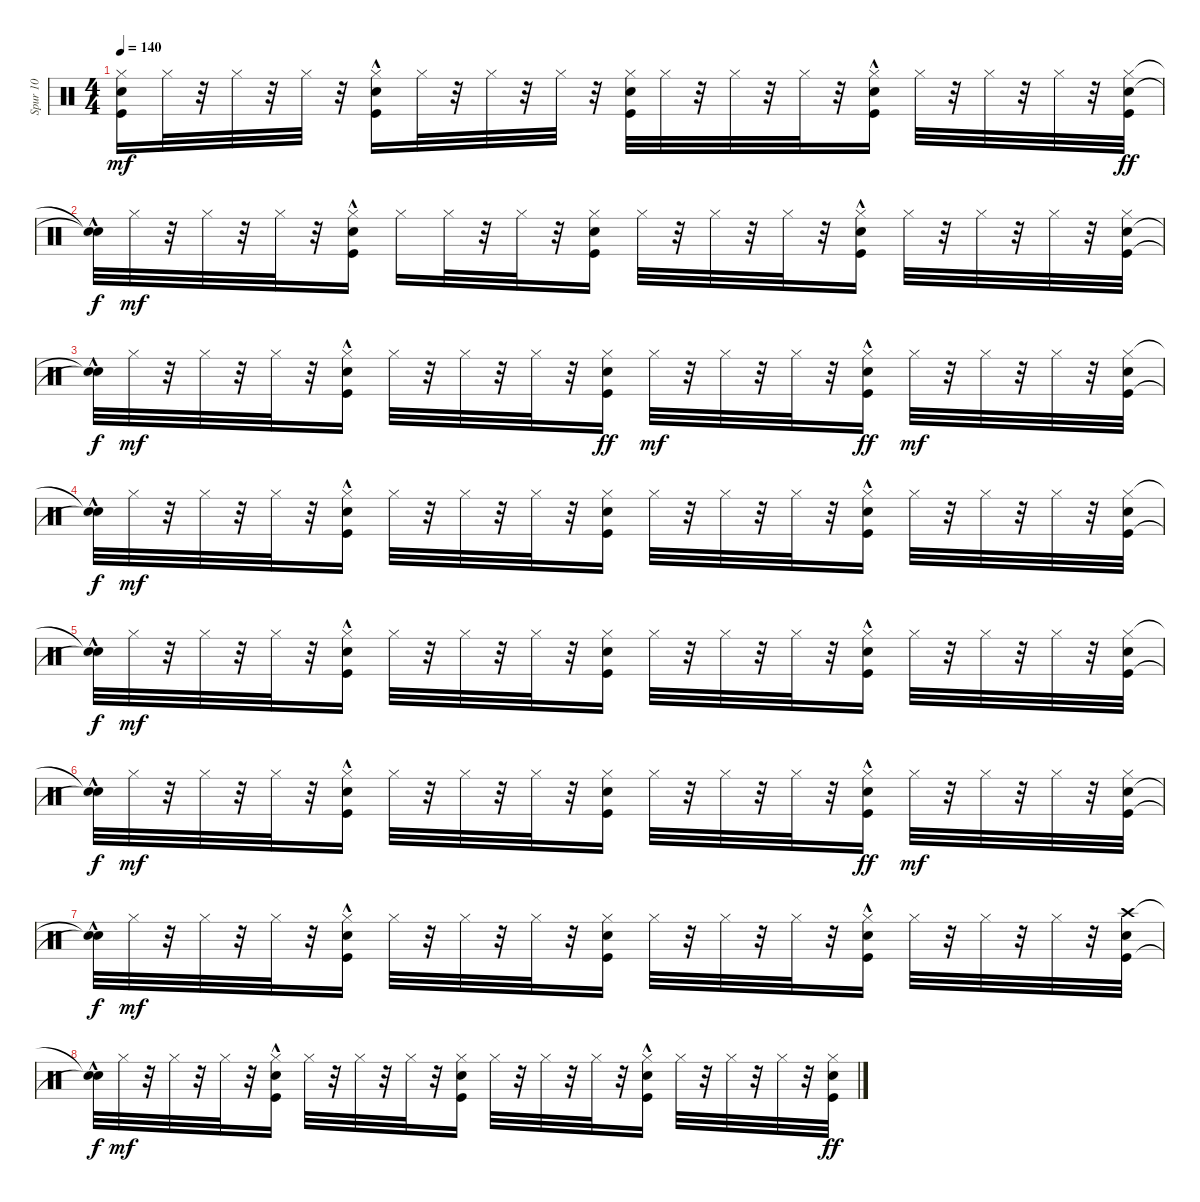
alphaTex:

\track ("Spur 10" "Spur 10") {instrument percussion}
\staff {score}
\articulation defaults
\ts (4 4)
\tempo 140
\clef neutral
\ks c
("Kick (hit)" "Hi-Hat (closed)" "Hand Clap (hit)").16{dy mf} "Hi-Hat (closed)".32 r.32 "Hi-Hat (closed)".32 r.32 "Hi-Hat (closed)".32 r.32 ("Kick (hit)"{hac} "Hi-Hat (closed)" "Hand Clap (hit)").16 "Hi-Hat (closed)".32 r.32 "Hi-Hat (closed)".32 r.32 "Hi-Hat (closed)".32 r.32 ("Hand Clap (hit)" "Kick (hit)" "Hi-Hat (closed)").32 "Hi-Hat (closed)".32 r.32 "Hi-Hat (closed)".32 r.32 "Hi-Hat (closed)".32 r.32 ("Kick (hit)"{hac} "Hi-Hat (closed)" "Hand Clap (hit)").16 "Hi-Hat (closed)".32 r.32 "Hi-Hat (closed)".32 r.32 "Hi-Hat (closed)".32 r.32 ("Hi-Hat (closed)" "Hand Clap (hit)" "Kick (hit)").32{dy ff} |
("Snare (hit)"{t} "Snare (hit)"{hac t}).32{dy f} "Hi-Hat (closed)".32{dy mf} r.32 "Hi-Hat (closed)".32 r.32 "Hi-Hat (closed)".32 r.32 ("Kick (hit)"{hac} "Hi-Hat (closed)" "Hand Clap (hit)").16 "Hi-Hat (closed)".16 "Hi-Hat (closed)".32 r.32 "Hi-Hat (closed)".32 r.32 ("Kick (hit)" "Hi-Hat (closed)" "Hand Clap (hit)").16 "Hi-Hat (closed)".32 r.32 "Hi-Hat (closed)".32 r.32 "Hi-Hat (closed)".32 r.32 ("Kick (hit)"{hac} "Hi-Hat (closed)" "Hand Clap (hit)").16 "Hi-Hat (closed)".32 r.32 "Hi-Hat (closed)".32 r.32 "Hi-Hat (closed)".32 r.32 ("Hand Clap (hit)" "Kick (hit)" "Hi-Hat (closed)").32 |
("Snare (hit)"{t} "Snare (hit)"{hac t}).32{dy f} "Hi-Hat (closed)".32{dy mf} r.32 "Hi-Hat (closed)".32 r.32 "Hi-Hat (closed)".32 r.32 ("Hand Clap (hit)" "Kick (hit)"{hac} "Hi-Hat (closed)").16 "Hi-Hat (closed)".32 r.32 "Hi-Hat (closed)".32 r.32 "Hi-Hat (closed)".32 r.32 ("Hi-Hat (closed)" "Hand Clap (hit)" "Kick (hit)").16{dy ff} "Hi-Hat (closed)".32{dy mf} r.32 "Hi-Hat (closed)".32 r.32 "Hi-Hat (closed)".32 r.32 ("Hi-Hat (closed)" "Hand Clap (hit)" "Kick (hit)"{hac}).16{dy ff} "Hi-Hat (closed)".32{dy mf} r.32 "Hi-Hat (closed)".32 r.32 "Hi-Hat (closed)".32 r.32 ("Kick (hit)" "Hi-Hat (closed)" "Hand Clap (hit)").32 |
("Snare (hit)"{hac t} "Snare (hit)"{t}).32{dy f} "Hi-Hat (closed)".32{dy mf} r.32 "Hi-Hat (closed)".32 r.32 "Hi-Hat (closed)".32 r.32 ("Kick (hit)"{hac} "Hi-Hat (closed)" "Hand Clap (hit)").16 "Hi-Hat (closed)".32 r.32 "Hi-Hat (closed)".32 r.32 "Hi-Hat (closed)".32 r.32 ("Kick (hit)" "Hi-Hat (closed)" "Hand Clap (hit)").16 "Hi-Hat (closed)".32 r.32 "Hi-Hat (closed)".32 r.32 "Hi-Hat (closed)".32 r.32 ("Hand Clap (hit)" "Kick (hit)"{hac} "Hi-Hat (closed)").16 "Hi-Hat (closed)".32 r.32 "Hi-Hat (closed)".32 r.32 "Hi-Hat (closed)".32 r.32 ("Kick (hit)" "Hi-Hat (closed)" "Hand Clap (hit)").32 |
("Snare (hit)"{hac t} "Snare (hit)"{t}).32{dy f} "Hi-Hat (closed)".32{dy mf} r.32 "Hi-Hat (closed)".32 r.32 "Hi-Hat (closed)".32 r.32 ("Kick (hit)"{hac} "Hi-Hat (closed)" "Hand Clap (hit)").16 "Hi-Hat (closed)".32 r.32 "Hi-Hat (closed)".32 r.32 "Hi-Hat (closed)".32 r.32 ("Kick (hit)" "Hi-Hat (closed)" "Hand Clap (hit)").16 "Hi-Hat (closed)".32 r.32 "Hi-Hat (closed)".32 r.32 "Hi-Hat (closed)".32 r.32 ("Kick (hit)"{hac} "Hi-Hat (closed)" "Hand Clap (hit)").16 "Hi-Hat (closed)".32 r.32 "Hi-Hat (closed)".32 r.32 "Hi-Hat (closed)".32 r.32 ("Kick (hit)" "Hi-Hat (closed)" "Hand Clap (hit)").32 |
("Snare (hit)"{hac t} "Snare (hit)"{t}).32{dy f} "Hi-Hat (closed)".32{dy mf} r.32 "Hi-Hat (closed)".32 r.32 "Hi-Hat (closed)".32 r.32 ("Hand Clap (hit)" "Kick (hit)"{hac} "Hi-Hat (closed)").16 "Hi-Hat (closed)".32 r.32 "Hi-Hat (closed)".32 r.32 "Hi-Hat (closed)".32 r.32 ("Hand Clap (hit)" "Kick (hit)" "Hi-Hat (closed)").16 "Hi-Hat (closed)".32 r.32 "Hi-Hat (closed)".32 r.32 "Hi-Hat (closed)".32 r.32 ("Hi-Hat (closed)" "Hand Clap (hit)" "Kick (hit)"{hac}).16{dy ff} "Hi-Hat (closed)".32{dy mf} r.32 "Hi-Hat (closed)".32 r.32 "Hi-Hat (closed)".32 r.32 ("Hand Clap (hit)" "Kick (hit)" "Hi-Hat (closed)").32 |
("Snare (hit)"{t} "Snare (hit)"{hac t}).32{dy f} "Hi-Hat (closed)".32{dy mf} r.32 "Hi-Hat (closed)".32 r.32 "Hi-Hat (closed)".32 r.32 ("Kick (hit)"{hac} "Hi-Hat (closed)" "Hand Clap (hit)").16 "Hi-Hat (closed)".32 r.32 "Hi-Hat (closed)".32 r.32 "Hi-Hat (closed)".32 r.32 ("Kick (hit)" "Hi-Hat (closed)" "Hand Clap (hit)").16 "Hi-Hat (closed)".32 r.32 "Hi-Hat (closed)".32 r.32 "Hi-Hat (closed)".32 r.32 ("Kick (hit)"{hac} "Hi-Hat (closed)" "Hand Clap (hit)").16 "Hi-Hat (closed)".32 r.32 "Hi-Hat (closed)".32 r.32 "Hi-Hat (closed)".32 r.32 ("Kick (hit)" "Crash high (hit)" "Hand Clap (hit)").32 |
("Snare (hit)"{hac t} "Snare (hit)"{t}).32{dy f} "Hi-Hat (closed)".32{dy mf} r.32 "Hi-Hat (closed)".32 r.32 "Hi-Hat (closed)".32 r.32 ("Kick (hit)"{hac} "Hi-Hat (closed)" "Hand Clap (hit)").16 "Hi-Hat (closed)".32 r.32 "Hi-Hat (closed)".32 r.32 "Hi-Hat (closed)".32 r.32 ("Hand Clap (hit)" "Kick (hit)" "Hi-Hat (closed)").16 "Hi-Hat (closed)".32 r.32 "Hi-Hat (closed)".32 r.32 "Hi-Hat (closed)".32 r.32 ("Kick (hit)"{hac} "Hi-Hat (closed)" "Hand Clap (hit)").16 "Hi-Hat (closed)".32 r.32 "Hi-Hat (closed)".32 r.32 "Hi-Hat (closed)".32 r.32 ("Hi-Hat (closed)" "Hand Clap (hit)" "Kick (hit)").32{dy ff}
